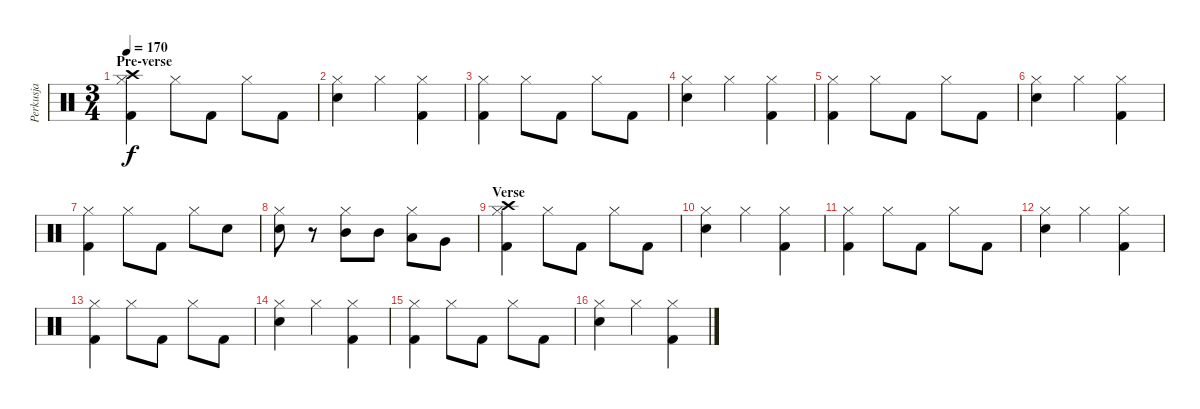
\track ("Perkusja" "Perkusja") {instrument percussion}
\staff {score}
\articulation defaults
\ts (3 4)
\section ("" "Pre-verse")
\tempo 170
\clef neutral
\ks c
("Kick (hit) 2" "Hi-Hat (closed)" "Crash high (hit)").4{dy f} "Hi-Hat (closed)".8 "Kick (hit) 2".8 "Hi-Hat (closed)".8 "Kick (hit) 2".8 |
("Snare (hit) 2" "Hi-Hat (closed)").4 "Hi-Hat (closed)".4 ("Kick (hit) 2" "Hi-Hat (closed)").4 |
("Kick (hit) 2" "Hi-Hat (closed)").4 "Hi-Hat (closed)".8 "Kick (hit) 2".8 "Hi-Hat (closed)".8 "Kick (hit) 2".8 |
("Snare (hit) 2" "Hi-Hat (closed)").4 "Hi-Hat (closed)".4 ("Kick (hit) 2" "Hi-Hat (closed)").4 |
("Kick (hit) 2" "Hi-Hat (closed)").4 "Hi-Hat (closed)".8 "Kick (hit) 2".8 "Hi-Hat (closed)".8 "Kick (hit) 2".8 |
("Snare (hit) 2" "Hi-Hat (closed)").4 "Hi-Hat (closed)".4 ("Kick (hit) 2" "Hi-Hat (closed)").4 |
("Kick (hit) 2" "Hi-Hat (closed)").4 "Hi-Hat (closed)".8 "Kick (hit) 2".8 "Hi-Hat (closed)".8 "Snare (hit) 2".8 |
("Snare (hit) 2" "Hi-Hat (closed)").8 r.8 ("Mid Tom (hit)" "Hi-Hat (closed)").8 "Mid Tom (hit)".8 ("Low Tom (hit)" "Hi-Hat (closed)").8 "Very Low Tom (hit)".8 |
\section ("" "Verse")
("Kick (hit) 2" "Hi-Hat (closed)" "Crash high (hit)").4 "Hi-Hat (closed)".8 "Kick (hit) 2".8 "Hi-Hat (closed)".8 "Kick (hit) 2".8 |
("Snare (hit) 2" "Hi-Hat (closed)").4 "Hi-Hat (closed)".4 ("Kick (hit) 2" "Hi-Hat (closed)").4 |
("Kick (hit) 2" "Hi-Hat (closed)").4 "Hi-Hat (closed)".8 "Kick (hit) 2".8 "Hi-Hat (closed)".8 "Kick (hit) 2".8 |
("Snare (hit) 2" "Hi-Hat (closed)").4 "Hi-Hat (closed)".4 ("Kick (hit) 2" "Hi-Hat (closed)").4 |
("Kick (hit) 2" "Hi-Hat (closed)").4 "Hi-Hat (closed)".8 "Kick (hit) 2".8 "Hi-Hat (closed)".8 "Kick (hit) 2".8 |
("Snare (hit) 2" "Hi-Hat (closed)").4 "Hi-Hat (closed)".4 ("Kick (hit) 2" "Hi-Hat (closed)").4 |
("Kick (hit) 2" "Hi-Hat (closed)").4 "Hi-Hat (closed)".8 "Kick (hit) 2".8 "Hi-Hat (closed)".8 "Kick (hit) 2".8 |
("Snare (hit) 2" "Hi-Hat (closed)").4 "Hi-Hat (closed)".4 ("Kick (hit) 2" "Hi-Hat (closed)").4
